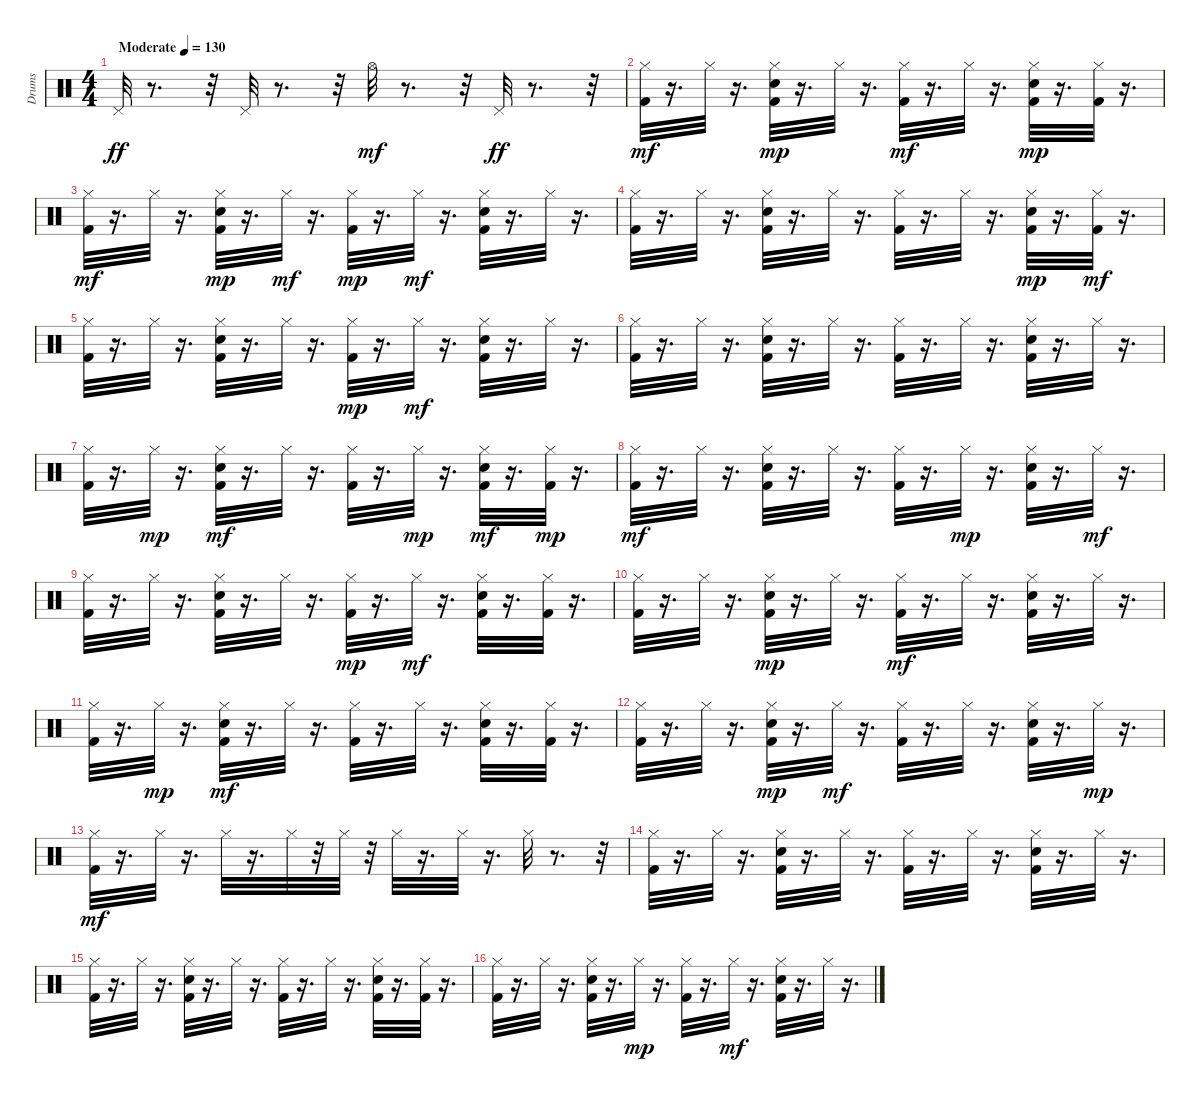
\track ("Drums" "Drums") {instrument percussion}
\staff {score}
\articulation defaults
\ts (4 4)
\tempo (130 "Moderate")
\clef neutral
\ks c "Pedal Hi-Hat (hit)".32{dy ff}
r.8{d} r.32 "Pedal Hi-Hat (hit)".32 r.8{d} r.32 "Hi-Hat (open)".32{dy mf} r.8{d} r.32 "Pedal Hi-Hat (hit)".32{dy ff} r.8{d} r.32 |
("Kick (hit) 2" "Hi-Hat (closed)").32{dy mf} r.16{d} "Hi-Hat (closed)".32 r.16{d} ("Kick (hit) 2" "Hand Clap (hit)" "Hi-Hat (closed)").32{dy mp} r.16{d} "Hi-Hat (closed)".32 r.16{d} ("Kick (hit) 2" "Hi-Hat (closed)").32{dy mf} r.16{d} "Hi-Hat (closed)".32 r.16{d} ("Kick (hit) 2" "Hand Clap (hit)" "Hi-Hat (closed)").32{dy mp} r.16{d} ("Kick (hit) 2" "Hi-Hat (closed)").32 r.16{d} |
("Kick (hit) 2" "Hi-Hat (closed)").32{dy mf} r.16{d} "Hi-Hat (closed)".32 r.16{d} ("Kick (hit) 2" "Hand Clap (hit)" "Hi-Hat (closed)").32{dy mp} r.16{d} "Hi-Hat (closed)".32{dy mf} r.16{d} ("Kick (hit) 2" "Hi-Hat (closed)").32{dy mp} r.16{d} "Hi-Hat (closed)".32{dy mf} r.16{d} ("Kick (hit) 2" "Hand Clap (hit)" "Hi-Hat (closed)").32 r.16{d} "Hi-Hat (closed)".32 r.16{d} |
("Kick (hit) 2" "Hi-Hat (closed)").32 r.16{d} "Hi-Hat (closed)".32 r.16{d} ("Kick (hit) 2" "Hand Clap (hit)" "Hi-Hat (closed)").32 r.16{d} "Hi-Hat (closed)".32 r.16{d} ("Kick (hit) 2" "Hi-Hat (closed)").32 r.16{d} "Hi-Hat (closed)".32 r.16{d} ("Kick (hit) 2" "Hand Clap (hit)" "Hi-Hat (closed)").32{dy mp} r.16{d} ("Kick (hit) 2" "Hi-Hat (closed)").32{dy mf} r.16{d} |
("Kick (hit) 2" "Hi-Hat (closed)").32 r.16{d} "Hi-Hat (closed)".32 r.16{d} ("Kick (hit) 2" "Hand Clap (hit)" "Hi-Hat (closed)").32 r.16{d} "Hi-Hat (closed)".32 r.16{d} ("Kick (hit) 2" "Hi-Hat (closed)").32{dy mp} r.16{d} "Hi-Hat (closed)".32{dy mf} r.16{d} ("Kick (hit) 2" "Hand Clap (hit)" "Hi-Hat (closed)").32 r.16{d} "Hi-Hat (closed)".32 r.16{d} |
("Kick (hit) 2" "Hi-Hat (closed)").32 r.16{d} "Hi-Hat (closed)".32 r.16{d} ("Kick (hit) 2" "Hand Clap (hit)" "Hi-Hat (closed)").32 r.16{d} "Hi-Hat (closed)".32 r.16{d} ("Kick (hit) 2" "Hi-Hat (closed)").32 r.16{d} "Hi-Hat (closed)".32 r.16{d} ("Kick (hit) 2" "Hand Clap (hit)" "Hi-Hat (closed)").32 r.16{d} "Hi-Hat (closed)".32 r.16{d} |
("Kick (hit) 2" "Hi-Hat (closed)").32 r.16{d} "Hi-Hat (closed)".32{dy mp} r.16{d} ("Kick (hit) 2" "Hand Clap (hit)" "Hi-Hat (closed)").32{dy mf} r.16{d} "Hi-Hat (closed)".32 r.16{d} ("Kick (hit) 2" "Hi-Hat (closed)").32 r.16{d} "Hi-Hat (closed)".32{dy mp} r.16{d} ("Kick (hit) 2" "Hand Clap (hit)" "Hi-Hat (closed)").32{dy mf} r.16{d} ("Kick (hit) 2" "Hi-Hat (closed)").32{dy mp} r.16{d} |
("Kick (hit) 2" "Hi-Hat (closed)").32{dy mf} r.16{d} "Hi-Hat (closed)".32 r.16{d} ("Kick (hit) 2" "Hand Clap (hit)" "Hi-Hat (closed)").32 r.16{d} "Hi-Hat (closed)".32 r.16{d} ("Kick (hit) 2" "Hi-Hat (closed)").32 r.16{d} "Hi-Hat (closed)".32{dy mp} r.16{d} ("Kick (hit) 2" "Hand Clap (hit)" "Hi-Hat (closed)").32 r.16{d} "Hi-Hat (closed)".32{dy mf} r.16{d} |
("Kick (hit) 2" "Hi-Hat (closed)").32 r.16{d} "Hi-Hat (closed)".32 r.16{d} ("Kick (hit) 2" "Hand Clap (hit)" "Hi-Hat (closed)").32 r.16{d} "Hi-Hat (closed)".32 r.16{d} ("Kick (hit) 2" "Hi-Hat (closed)").32{dy mp} r.16{d} "Hi-Hat (closed)".32{dy mf} r.16{d} ("Kick (hit) 2" "Hand Clap (hit)" "Hi-Hat (closed)").32 r.16{d} ("Kick (hit) 2" "Hi-Hat (closed)").32 r.16{d} |
("Kick (hit) 2" "Hi-Hat (closed)").32 r.16{d} "Hi-Hat (closed)".32 r.16{d} ("Kick (hit) 2" "Hand Clap (hit)" "Hi-Hat (closed)").32{dy mp} r.16{d} "Hi-Hat (closed)".32 r.16{d} ("Kick (hit) 2" "Hi-Hat (closed)").32{dy mf} r.16{d} "Hi-Hat (closed)".32 r.16{d} ("Kick (hit) 2" "Hand Clap (hit)" "Hi-Hat (closed)").32 r.16{d} "Hi-Hat (closed)".32 r.16{d} |
("Kick (hit) 2" "Hi-Hat (closed)").32 r.16{d} "Hi-Hat (closed)".32{dy mp} r.16{d} ("Kick (hit) 2" "Hand Clap (hit)" "Hi-Hat (closed)").32{dy mf} r.16{d} "Hi-Hat (closed)".32 r.16{d} ("Kick (hit) 2" "Hi-Hat (closed)").32 r.16{d} "Hi-Hat (closed)".32 r.16{d} ("Kick (hit) 2" "Hand Clap (hit)" "Hi-Hat (closed)").32 r.16{d} ("Kick (hit) 2" "Hi-Hat (closed)").32 r.16{d} |
("Kick (hit) 2" "Hi-Hat (closed)").32 r.16{d} "Hi-Hat (closed)".32 r.16{d} ("Kick (hit) 2" "Hand Clap (hit)" "Hi-Hat (closed)").32{dy mp} r.16{d} "Hi-Hat (closed)".32{dy mf} r.16{d} ("Kick (hit) 2" "Hi-Hat (closed)").32 r.16{d} "Hi-Hat (closed)".32 r.16{d} ("Kick (hit) 2" "Hand Clap (hit)" "Hi-Hat (closed)").32 r.16{d} "Hi-Hat (closed)".32{dy mp} r.16{d} |
("Kick (hit) 2" "Hi-Hat (closed)").32{dy mf} r.16{d} "Hi-Hat (closed)".32 r.16{d} "Hi-Hat (closed)".32 r.16{d} "Hi-Hat (closed)".32 r.32 "Hi-Hat (closed)".32 r.32 "Hi-Hat (closed)".32 r.16{d} "Hi-Hat (closed)".32 r.16{d} "Hi-Hat (closed)".32 r.8{d} r.32 |
("Kick (hit) 2" "Hi-Hat (closed)").32 r.16{d} "Hi-Hat (closed)".32 r.16{d} ("Kick (hit) 2" "Hand Clap (hit)" "Hi-Hat (closed)").32 r.16{d} "Hi-Hat (closed)".32 r.16{d} ("Kick (hit) 2" "Hi-Hat (closed)").32 r.16{d} "Hi-Hat (closed)".32 r.16{d} ("Kick (hit) 2" "Hand Clap (hit)" "Hi-Hat (closed)").32 r.16{d} "Hi-Hat (closed)".32 r.16{d} |
("Kick (hit) 2" "Hi-Hat (closed)").32 r.16{d} "Hi-Hat (closed)".32 r.16{d} ("Kick (hit) 2" "Hand Clap (hit)" "Hi-Hat (closed)").32 r.16{d} "Hi-Hat (closed)".32 r.16{d} ("Kick (hit) 2" "Hi-Hat (closed)").32 r.16{d} "Hi-Hat (closed)".32 r.16{d} ("Kick (hit) 2" "Hand Clap (hit)" "Hi-Hat (closed)").32 r.16{d} ("Kick (hit) 2" "Hi-Hat (closed)").32 r.16{d} |
("Kick (hit) 2" "Hi-Hat (closed)").32 r.16{d} "Hi-Hat (closed)".32 r.16{d} ("Kick (hit) 2" "Hand Clap (hit)" "Hi-Hat (closed)").32 r.16{d} "Hi-Hat (closed)".32{dy mp} r.16{d} ("Kick (hit) 2" "Hi-Hat (closed)").32 r.16{d} "Hi-Hat (closed)".32{dy mf} r.16{d} ("Kick (hit) 2" "Hand Clap (hit)" "Hi-Hat (closed)").32 r.16{d} "Hi-Hat (closed)".32 r.16{d}
